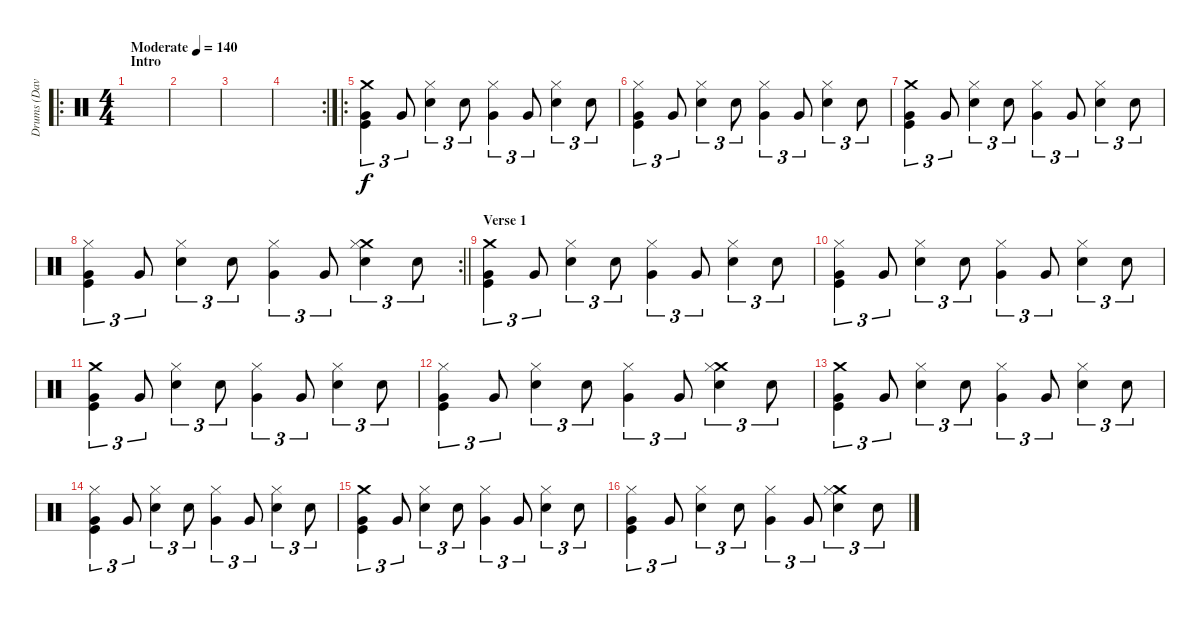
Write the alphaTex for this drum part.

\track ("Drums (Dave Atkins)" "Drums (Dav") {instrument percussion}
\staff {score}
\articulation defaults
\ro
\ts (4 4)
\section ("" "Intro")
\tempo (140 "Moderate")
\clef neutral
\ks c
|
|
|
\rc 2
|
\ro
("Crash medium (hit)" "Very Low Tom (hit)" "Kick (hit)").4{tu (3 2)} "Very Low Tom (hit)".8{tu (3 2)} ("Hi-Hat (closed)" "Snare (hit) 2").4{tu (3 2)} "Snare (hit) 2".8{tu (3 2)} ("Hi-Hat (closed)" "Very Low Tom (hit)").4{tu (3 2)} "Very Low Tom (hit)".8{tu (3 2)} ("Hi-Hat (closed)" "Snare (hit) 2").4{tu (3 2)} "Snare (hit) 2".8{tu (3 2)} |
("Hi-Hat (closed)" "Very Low Tom (hit)" "Kick (hit)").4{tu (3 2)} "Very Low Tom (hit)".8{tu (3 2)} ("Hi-Hat (closed)" "Snare (hit) 2").4{tu (3 2)} "Snare (hit) 2".8{tu (3 2)} ("Hi-Hat (closed)" "Very Low Tom (hit)").4{tu (3 2)} "Very Low Tom (hit)".8{tu (3 2)} ("Hi-Hat (closed)" "Snare (hit) 2").4{tu (3 2)} "Snare (hit) 2".8{tu (3 2)} |
("Crash medium (hit)" "Very Low Tom (hit)" "Kick (hit)").4{tu (3 2)} "Very Low Tom (hit)".8{tu (3 2)} ("Hi-Hat (closed)" "Snare (hit) 2").4{tu (3 2)} "Snare (hit) 2".8{tu (3 2)} ("Hi-Hat (closed)" "Very Low Tom (hit)").4{tu (3 2)} "Very Low Tom (hit)".8{tu (3 2)} ("Hi-Hat (closed)" "Snare (hit) 2").4{tu (3 2)} "Snare (hit) 2".8{tu (3 2)} |
\rc 2
\barLineRight lightlight
("Hi-Hat (closed)" "Very Low Tom (hit)" "Kick (hit)").4{tu (3 2)} "Very Low Tom (hit)".8{tu (3 2)} ("Hi-Hat (closed)" "Snare (hit) 2").4{tu (3 2)} "Snare (hit) 2".8{tu (3 2)} ("Hi-Hat (closed)" "Very Low Tom (hit)").4{tu (3 2)} "Very Low Tom (hit)".8{tu (3 2)} ("Crash medium (hit)" "Hi-Hat (closed)" "Snare (hit) 2").4{tu (3 2)} "Snare (hit) 2".8{tu (3 2)} |
\section ("" "Verse 1")
("Crash medium (hit)" "Very Low Tom (hit)" "Kick (hit)").4{tu (3 2)} "Very Low Tom (hit)".8{tu (3 2)} ("Hi-Hat (closed)" "Snare (hit) 2").4{tu (3 2)} "Snare (hit) 2".8{tu (3 2)} ("Hi-Hat (closed)" "Very Low Tom (hit)").4{tu (3 2)} "Very Low Tom (hit)".8{tu (3 2)} ("Hi-Hat (closed)" "Snare (hit) 2").4{tu (3 2)} "Snare (hit) 2".8{tu (3 2)} |
("Hi-Hat (closed)" "Very Low Tom (hit)" "Kick (hit)").4{tu (3 2)} "Very Low Tom (hit)".8{tu (3 2)} ("Hi-Hat (closed)" "Snare (hit) 2").4{tu (3 2)} "Snare (hit) 2".8{tu (3 2)} ("Hi-Hat (closed)" "Very Low Tom (hit)").4{tu (3 2)} "Very Low Tom (hit)".8{tu (3 2)} ("Hi-Hat (closed)" "Snare (hit) 2").4{tu (3 2)} "Snare (hit) 2".8{tu (3 2)} |
("Crash medium (hit)" "Very Low Tom (hit)" "Kick (hit)").4{tu (3 2)} "Very Low Tom (hit)".8{tu (3 2)} ("Hi-Hat (closed)" "Snare (hit) 2").4{tu (3 2)} "Snare (hit) 2".8{tu (3 2)} ("Hi-Hat (closed)" "Very Low Tom (hit)").4{tu (3 2)} "Very Low Tom (hit)".8{tu (3 2)} ("Hi-Hat (closed)" "Snare (hit) 2").4{tu (3 2)} "Snare (hit) 2".8{tu (3 2)} |
("Hi-Hat (closed)" "Very Low Tom (hit)" "Kick (hit)").4{tu (3 2)} "Very Low Tom (hit)".8{tu (3 2)} ("Hi-Hat (closed)" "Snare (hit) 2").4{tu (3 2)} "Snare (hit) 2".8{tu (3 2)} ("Hi-Hat (closed)" "Very Low Tom (hit)").4{tu (3 2)} "Very Low Tom (hit)".8{tu (3 2)} ("Crash medium (hit)" "Hi-Hat (closed)" "Snare (hit) 2").4{tu (3 2)} "Snare (hit) 2".8{tu (3 2)} |
("Crash medium (hit)" "Very Low Tom (hit)" "Kick (hit)").4{tu (3 2)} "Very Low Tom (hit)".8{tu (3 2)} ("Hi-Hat (closed)" "Snare (hit) 2").4{tu (3 2)} "Snare (hit) 2".8{tu (3 2)} ("Hi-Hat (closed)" "Very Low Tom (hit)").4{tu (3 2)} "Very Low Tom (hit)".8{tu (3 2)} ("Hi-Hat (closed)" "Snare (hit) 2").4{tu (3 2)} "Snare (hit) 2".8{tu (3 2)} |
("Hi-Hat (closed)" "Very Low Tom (hit)" "Kick (hit)").4{tu (3 2)} "Very Low Tom (hit)".8{tu (3 2)} ("Hi-Hat (closed)" "Snare (hit) 2").4{tu (3 2)} "Snare (hit) 2".8{tu (3 2)} ("Hi-Hat (closed)" "Very Low Tom (hit)").4{tu (3 2)} "Very Low Tom (hit)".8{tu (3 2)} ("Hi-Hat (closed)" "Snare (hit) 2").4{tu (3 2)} "Snare (hit) 2".8{tu (3 2)} |
("Crash medium (hit)" "Very Low Tom (hit)" "Kick (hit)").4{tu (3 2)} "Very Low Tom (hit)".8{tu (3 2)} ("Hi-Hat (closed)" "Snare (hit) 2").4{tu (3 2)} "Snare (hit) 2".8{tu (3 2)} ("Hi-Hat (closed)" "Very Low Tom (hit)").4{tu (3 2)} "Very Low Tom (hit)".8{tu (3 2)} ("Hi-Hat (closed)" "Snare (hit) 2").4{tu (3 2)} "Snare (hit) 2".8{tu (3 2)} |
("Hi-Hat (closed)" "Very Low Tom (hit)" "Kick (hit)").4{tu (3 2)} "Very Low Tom (hit)".8{tu (3 2)} ("Hi-Hat (closed)" "Snare (hit) 2").4{tu (3 2)} "Snare (hit) 2".8{tu (3 2)} ("Hi-Hat (closed)" "Very Low Tom (hit)").4{tu (3 2)} "Very Low Tom (hit)".8{tu (3 2)} ("Crash medium (hit)" "Hi-Hat (closed)" "Snare (hit) 2").4{tu (3 2)} "Snare (hit) 2".8{tu (3 2)}
